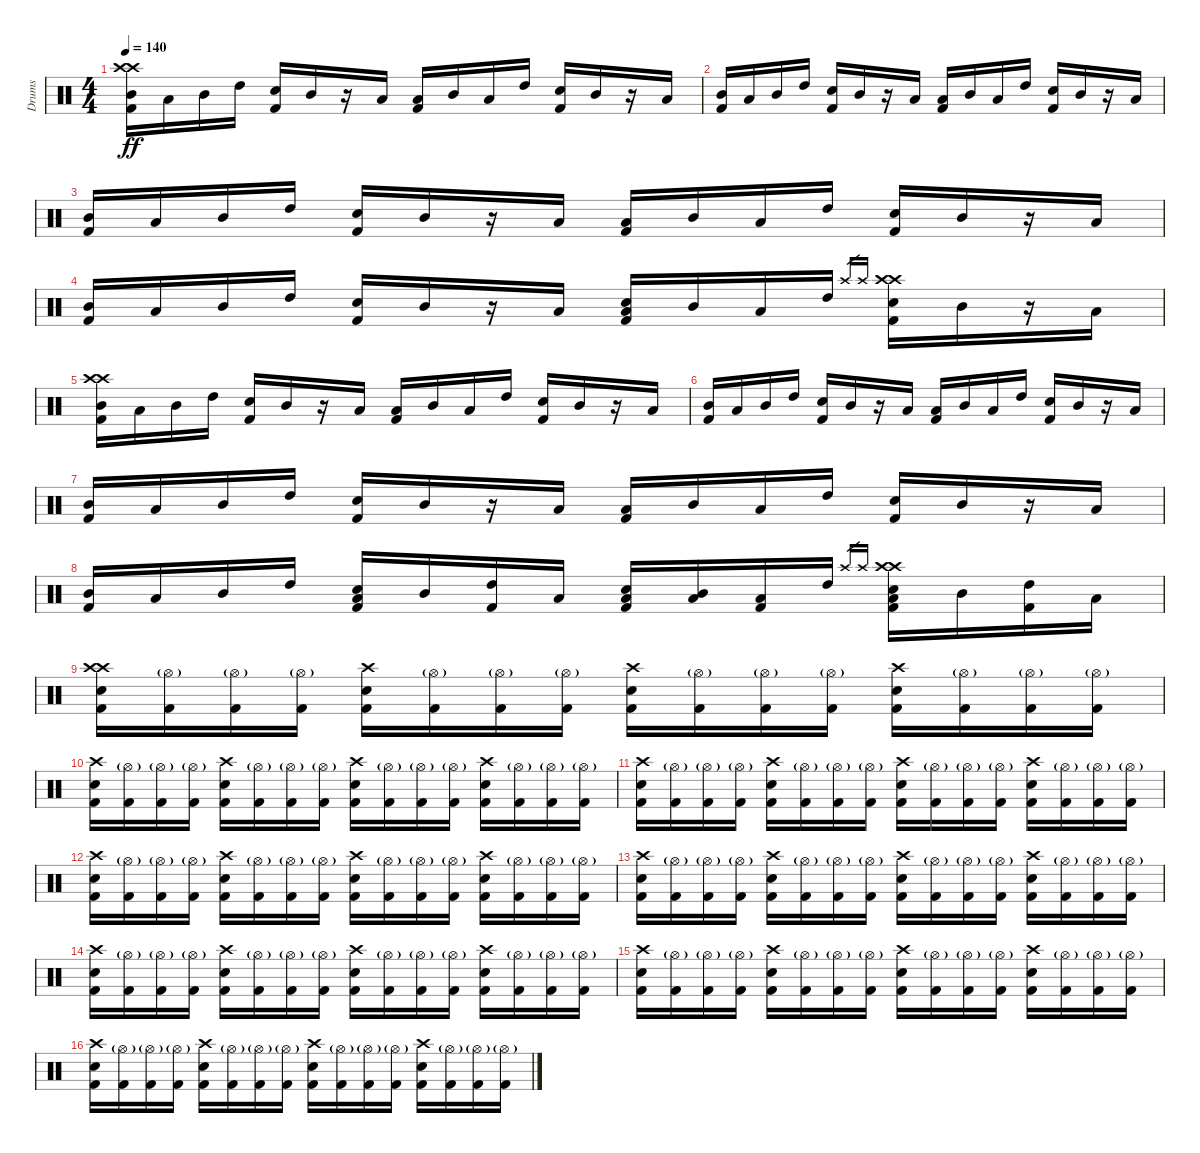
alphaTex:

\track ("Drums" "Drums") {instrument percussion}
\staff {score}
\articulation defaults
\ts (4 4)
\tempo 140
\clef neutral
\ks c
("Crash high (hit)" "Mid Tom (hit)" "Kick (hit) 2" "Crash high (hit)").16{dy ff} "Low Tom (hit)".16 "Mid Tom (hit)".16 "High Tom (hit)".16 ("Electric Snare (hit)" "Kick (hit) 2").16 "Mid Tom (hit)".16 r.16 "Low Tom (hit)".16 ("Low Tom (hit)" "Kick (hit) 2").16 "Mid Tom (hit)".16 "Low Tom (hit)".16 "High Tom (hit)".16 ("Electric Snare (hit)" "Kick (hit) 2").16 "Mid Tom (hit)".16 r.16 "Low Tom (hit)".16 |
("Mid Tom (hit)" "Kick (hit) 2").16 "Low Tom (hit)".16 "Mid Tom (hit)".16 "High Tom (hit)".16 ("Electric Snare (hit)" "Kick (hit) 2").16 "Mid Tom (hit)".16 r.16 "Low Tom (hit)".16 ("Low Tom (hit)" "Kick (hit) 2").16 "Mid Tom (hit)".16 "Low Tom (hit)".16 "High Tom (hit)".16 ("Electric Snare (hit)" "Kick (hit) 2").16 "Mid Tom (hit)".16 r.16 "Low Tom (hit)".16 |
("Mid Tom (hit)" "Kick (hit) 2").16 "Low Tom (hit)".16 "Mid Tom (hit)".16 "High Tom (hit)".16 ("Electric Snare (hit)" "Kick (hit) 2").16 "Mid Tom (hit)".16 r.16 "Low Tom (hit)".16 ("Low Tom (hit)" "Kick (hit) 2").16 "Mid Tom (hit)".16 "Low Tom (hit)".16 "High Tom (hit)".16 ("Electric Snare (hit)" "Kick (hit) 2").16 "Mid Tom (hit)".16 r.16 "Low Tom (hit)".16 |
("Mid Tom (hit)" "Kick (hit) 2").16 "Low Tom (hit)".16 "Mid Tom (hit)".16 "High Tom (hit)".16 ("Electric Snare (hit)" "Kick (hit) 2").16 "Mid Tom (hit)".16 r.16 "Low Tom (hit)".16 ("Low Tom (hit)" "Electric Snare (hit)" "Kick (hit) 2").16 "Mid Tom (hit)".16 "Low Tom (hit)".16 "High Tom (hit)".16 "Crash high (hit)".16{gr} "Crash high (hit)".16{gr} ("Crash high (hit)" "Electric Snare (hit)" "Kick (hit) 2" "Crash high (hit)").16 "Mid Tom (hit)".16 r.16 "Low Tom (hit)".16 |
("Crash high (hit)" "Mid Tom (hit)" "Kick (hit) 2" "Crash high (hit)").16 "Low Tom (hit)".16 "Mid Tom (hit)".16 "High Tom (hit)".16 ("Electric Snare (hit)" "Kick (hit) 2").16 "Mid Tom (hit)".16 r.16 "Low Tom (hit)".16 ("Low Tom (hit)" "Kick (hit) 2").16 "Mid Tom (hit)".16 "Low Tom (hit)".16 "High Tom (hit)".16 ("Electric Snare (hit)" "Kick (hit) 2").16 "Mid Tom (hit)".16 r.16 "Low Tom (hit)".16 |
("Mid Tom (hit)" "Kick (hit) 2").16 "Low Tom (hit)".16 "Mid Tom (hit)".16 "High Tom (hit)".16 ("Electric Snare (hit)" "Kick (hit) 2").16 "Mid Tom (hit)".16 r.16 "Low Tom (hit)".16 ("Low Tom (hit)" "Kick (hit) 2").16 "Mid Tom (hit)".16 "Low Tom (hit)".16 "High Tom (hit)".16 ("Electric Snare (hit)" "Kick (hit) 2").16 "Mid Tom (hit)".16 r.16 "Low Tom (hit)".16 |
("Mid Tom (hit)" "Kick (hit) 2").16 "Low Tom (hit)".16 "Mid Tom (hit)".16 "High Tom (hit)".16 ("Electric Snare (hit)" "Kick (hit) 2").16 "Mid Tom (hit)".16 r.16 "Low Tom (hit)".16 ("Low Tom (hit)" "Kick (hit) 2").16 "Mid Tom (hit)".16 "Low Tom (hit)".16 "High Tom (hit)".16 ("Electric Snare (hit)" "Kick (hit) 2").16 "Mid Tom (hit)".16 r.16 "Low Tom (hit)".16 |
("Mid Tom (hit)" "Kick (hit) 2").16 "Low Tom (hit)".16 "Mid Tom (hit)".16 "High Tom (hit)".16 ("Low Tom (hit)" "Electric Snare (hit)" "Kick (hit) 2").16 "Mid Tom (hit)".16 ("High Tom (hit)" "Kick (hit) 2").16 "Low Tom (hit)".16 ("Low Tom (hit)" "Electric Snare (hit)" "Kick (hit) 2").16 ("Mid Tom (hit)" "Low Tom (hit)").16 ("Low Tom (hit)" "Kick (hit) 2").16 "High Tom (hit)".16 "Crash high (hit)".16{gr} "Crash high (hit)".16{gr} ("Crash high (hit)" "Low Tom (hit)" "Electric Snare (hit)" "Kick (hit) 2" "Crash high (hit)").16 "Mid Tom (hit)".16 ("High Tom (hit)" "Kick (hit) 2").16 "Low Tom (hit)".16 |
("Crash high (hit)" "Kick (hit) 2" "Crash high (hit)" "Electric Snare (hit)").16 ("Hi-Hat (open)"{g} "Kick (hit) 2").16 ("Hi-Hat (open)"{g} "Kick (hit) 2").16 ("Hi-Hat (open)"{g} "Kick (hit) 2").16 ("Crash high (hit)" "Kick (hit) 2" "Electric Snare (hit)").16 ("Hi-Hat (open)"{g} "Kick (hit) 2").16 ("Hi-Hat (open)"{g} "Kick (hit) 2").16 ("Hi-Hat (open)"{g} "Kick (hit) 2").16 ("Crash high (hit)" "Kick (hit) 2" "Electric Snare (hit)").16 ("Hi-Hat (open)"{g} "Kick (hit) 2").16 ("Hi-Hat (open)"{g} "Kick (hit) 2").16 ("Hi-Hat (open)"{g} "Kick (hit) 2").16 ("Crash high (hit)" "Kick (hit) 2" "Electric Snare (hit)").16 ("Hi-Hat (open)"{g} "Kick (hit) 2").16 ("Hi-Hat (open)"{g} "Kick (hit) 2").16 ("Hi-Hat (open)"{g} "Kick (hit) 2").16 |
("Crash high (hit)" "Kick (hit) 2" "Electric Snare (hit)").16 ("Hi-Hat (open)"{g} "Kick (hit) 2").16 ("Hi-Hat (open)"{g} "Kick (hit) 2").16 ("Hi-Hat (open)"{g} "Kick (hit) 2").16 ("Crash high (hit)" "Kick (hit) 2" "Electric Snare (hit)").16 ("Hi-Hat (open)"{g} "Kick (hit) 2").16 ("Hi-Hat (open)"{g} "Kick (hit) 2").16 ("Hi-Hat (open)"{g} "Kick (hit) 2").16 ("Crash high (hit)" "Kick (hit) 2" "Electric Snare (hit)").16 ("Hi-Hat (open)"{g} "Kick (hit) 2").16 ("Hi-Hat (open)"{g} "Kick (hit) 2").16 ("Hi-Hat (open)"{g} "Kick (hit) 2").16 ("Crash high (hit)" "Kick (hit) 2" "Electric Snare (hit)").16 ("Hi-Hat (open)"{g} "Kick (hit) 2").16 ("Hi-Hat (open)"{g} "Kick (hit) 2").16 ("Hi-Hat (open)"{g} "Kick (hit) 2").16 |
("Crash high (hit)" "Kick (hit) 2" "Electric Snare (hit)").16 ("Hi-Hat (open)"{g} "Kick (hit) 2").16 ("Hi-Hat (open)"{g} "Kick (hit) 2").16 ("Hi-Hat (open)"{g} "Kick (hit) 2").16 ("Crash high (hit)" "Kick (hit) 2" "Electric Snare (hit)").16 ("Hi-Hat (open)"{g} "Kick (hit) 2").16 ("Hi-Hat (open)"{g} "Kick (hit) 2").16 ("Hi-Hat (open)"{g} "Kick (hit) 2").16 ("Crash high (hit)" "Kick (hit) 2" "Electric Snare (hit)").16 ("Hi-Hat (open)"{g} "Kick (hit) 2").16 ("Hi-Hat (open)"{g} "Kick (hit) 2").16 ("Hi-Hat (open)"{g} "Kick (hit) 2").16 ("Crash high (hit)" "Kick (hit) 2" "Electric Snare (hit)").16 ("Hi-Hat (open)"{g} "Kick (hit) 2").16 ("Hi-Hat (open)"{g} "Kick (hit) 2").16 ("Hi-Hat (open)"{g} "Kick (hit) 2").16 |
("Crash high (hit)" "Kick (hit) 2" "Electric Snare (hit)").16 ("Hi-Hat (open)"{g} "Kick (hit) 2").16 ("Hi-Hat (open)"{g} "Kick (hit) 2").16 ("Hi-Hat (open)"{g} "Kick (hit) 2").16 ("Crash high (hit)" "Kick (hit) 2" "Electric Snare (hit)").16 ("Hi-Hat (open)"{g} "Kick (hit) 2").16 ("Hi-Hat (open)"{g} "Kick (hit) 2").16 ("Hi-Hat (open)"{g} "Kick (hit) 2").16 ("Crash high (hit)" "Kick (hit) 2" "Electric Snare (hit)").16 ("Hi-Hat (open)"{g} "Kick (hit) 2").16 ("Hi-Hat (open)"{g} "Kick (hit) 2").16 ("Hi-Hat (open)"{g} "Kick (hit) 2").16 ("Crash high (hit)" "Kick (hit) 2" "Electric Snare (hit)").16 ("Hi-Hat (open)"{g} "Kick (hit) 2").16 ("Hi-Hat (open)"{g} "Kick (hit) 2").16 ("Hi-Hat (open)"{g} "Kick (hit) 2").16 |
("Crash high (hit)" "Kick (hit) 2" "Electric Snare (hit)").16 ("Hi-Hat (open)"{g} "Kick (hit) 2").16 ("Hi-Hat (open)"{g} "Kick (hit) 2").16 ("Hi-Hat (open)"{g} "Kick (hit) 2").16 ("Crash high (hit)" "Kick (hit) 2" "Electric Snare (hit)").16 ("Hi-Hat (open)"{g} "Kick (hit) 2").16 ("Hi-Hat (open)"{g} "Kick (hit) 2").16 ("Hi-Hat (open)"{g} "Kick (hit) 2").16 ("Crash high (hit)" "Kick (hit) 2" "Electric Snare (hit)").16 ("Hi-Hat (open)"{g} "Kick (hit) 2").16 ("Hi-Hat (open)"{g} "Kick (hit) 2").16 ("Hi-Hat (open)"{g} "Kick (hit) 2").16 ("Crash high (hit)" "Kick (hit) 2" "Electric Snare (hit)").16 ("Hi-Hat (open)"{g} "Kick (hit) 2").16 ("Hi-Hat (open)"{g} "Kick (hit) 2").16 ("Hi-Hat (open)"{g} "Kick (hit) 2").16 |
("Crash high (hit)" "Kick (hit) 2" "Electric Snare (hit)").16 ("Hi-Hat (open)"{g} "Kick (hit) 2").16 ("Hi-Hat (open)"{g} "Kick (hit) 2").16 ("Hi-Hat (open)"{g} "Kick (hit) 2").16 ("Crash high (hit)" "Kick (hit) 2" "Electric Snare (hit)").16 ("Hi-Hat (open)"{g} "Kick (hit) 2").16 ("Hi-Hat (open)"{g} "Kick (hit) 2").16 ("Hi-Hat (open)"{g} "Kick (hit) 2").16 ("Crash high (hit)" "Kick (hit) 2" "Electric Snare (hit)").16 ("Hi-Hat (open)"{g} "Kick (hit) 2").16 ("Hi-Hat (open)"{g} "Kick (hit) 2").16 ("Hi-Hat (open)"{g} "Kick (hit) 2").16 ("Crash high (hit)" "Kick (hit) 2" "Electric Snare (hit)").16 ("Hi-Hat (open)"{g} "Kick (hit) 2").16 ("Hi-Hat (open)"{g} "Kick (hit) 2").16 ("Hi-Hat (open)"{g} "Kick (hit) 2").16 |
("Crash high (hit)" "Kick (hit) 2" "Electric Snare (hit)").16 ("Hi-Hat (open)"{g} "Kick (hit) 2").16 ("Hi-Hat (open)"{g} "Kick (hit) 2").16 ("Hi-Hat (open)"{g} "Kick (hit) 2").16 ("Crash high (hit)" "Kick (hit) 2" "Electric Snare (hit)").16 ("Hi-Hat (open)"{g} "Kick (hit) 2").16 ("Hi-Hat (open)"{g} "Kick (hit) 2").16 ("Hi-Hat (open)"{g} "Kick (hit) 2").16 ("Crash high (hit)" "Kick (hit) 2" "Electric Snare (hit)").16 ("Hi-Hat (open)"{g} "Kick (hit) 2").16 ("Hi-Hat (open)"{g} "Kick (hit) 2").16 ("Hi-Hat (open)"{g} "Kick (hit) 2").16 ("Crash high (hit)" "Kick (hit) 2" "Electric Snare (hit)").16 ("Hi-Hat (open)"{g} "Kick (hit) 2").16 ("Hi-Hat (open)"{g} "Kick (hit) 2").16 ("Hi-Hat (open)"{g} "Kick (hit) 2").16 |
("Crash high (hit)" "Kick (hit) 2" "Electric Snare (hit)").16 ("Hi-Hat (open)"{g} "Kick (hit) 2").16 ("Hi-Hat (open)"{g} "Kick (hit) 2").16 ("Hi-Hat (open)"{g} "Kick (hit) 2").16 ("Crash high (hit)" "Kick (hit) 2" "Electric Snare (hit)").16 ("Hi-Hat (open)"{g} "Kick (hit) 2").16 ("Hi-Hat (open)"{g} "Kick (hit) 2").16 ("Hi-Hat (open)"{g} "Kick (hit) 2").16 ("Crash high (hit)" "Kick (hit) 2" "Electric Snare (hit)").16 ("Hi-Hat (open)"{g} "Kick (hit) 2").16 ("Hi-Hat (open)"{g} "Kick (hit) 2").16 ("Hi-Hat (open)"{g} "Kick (hit) 2").16 ("Crash high (hit)" "Kick (hit) 2" "Electric Snare (hit)").16 ("Hi-Hat (open)"{g} "Kick (hit) 2").16 ("Hi-Hat (open)"{g} "Kick (hit) 2").16 ("Hi-Hat (open)"{g} "Kick (hit) 2").16
